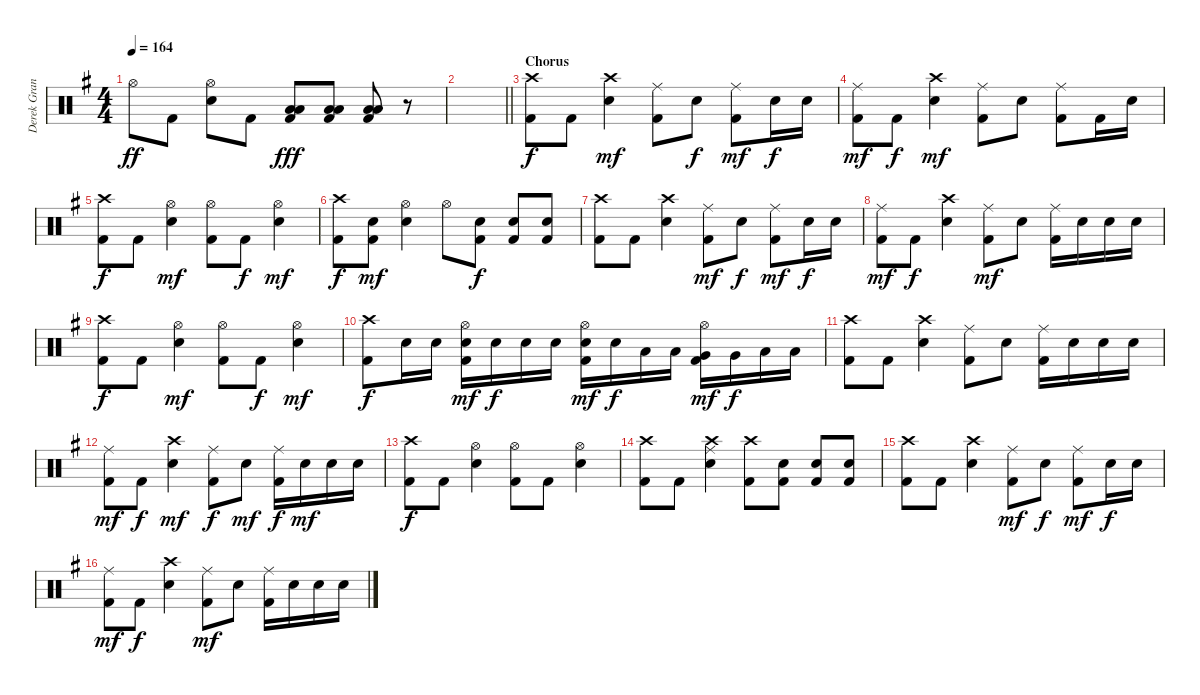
\track ("Derek Grant - Drums" "Derek Gran") {instrument percussion}
\staff {score}
\articulation defaults
\ts (4 4)
\tempo 164
\clef neutral
\ks eminor "Hi-Hat (open)".8{dy ff} "Kick (hit) 2".8
("Snare (hit) 2" "Hi-Hat (open)").8 "Kick (hit) 2".8 ("Low Tom (hit)" "Low Floor Tom (hit)" "Kick (hit) 2").8{dy fff} ("Low Tom (hit)" "Low Floor Tom (hit)" "Kick (hit) 2").8 ("Low Tom (hit)" "Low Floor Tom (hit)" "Kick (hit) 2").8 r.8 |
\barLineRight lightlight
|
\section ("" "Chorus")
("Kick (hit) 2" "Crash high (hit)").8{dy f} "Kick (hit) 2".8 ("Snare (hit) 2" "Crash high (hit)").4{dy mf} ("Kick (hit) 2" "Ride (middle)").8 "Electric Snare (hit)".8{dy f} ("Kick (hit) 2" "Ride (middle)").8{dy mf} "Electric Snare (hit)".16{dy f} "Electric Snare (hit)".16 |
("Kick (hit) 2" "Ride (middle)").8{dy mf} "Kick (hit) 2".8{dy f} ("Snare (hit) 2" "Crash high (hit)").4{dy mf} ("Kick (hit) 2" "Ride (middle)").8 "Snare (hit) 2".8 ("Kick (hit) 2" "Ride (middle)").8 "Kick (hit) 2".16 "Snare (hit) 2".16 |
("Kick (hit) 2" "Crash high (hit)").8{dy f} "Kick (hit) 2".8 ("Snare (hit) 2" "Hi-Hat (open)").4{dy mf} ("Kick (hit) 2" "Hi-Hat (open)").8 "Kick (hit) 2".8{dy f} ("Snare (hit) 2" "Hi-Hat (open)").4{dy mf} |
("Kick (hit) 2" "Crash high (hit)").8{dy f} ("Kick (hit) 2" "Snare (hit) 2").8{dy mf} ("Snare (hit) 2" "Hi-Hat (open)").4 "Hi-Hat (open)".8 ("Snare (hit) 2" "Kick (hit) 2").8{dy f} ("Snare (hit) 2" "Kick (hit) 2").8 ("Snare (hit) 2" "Kick (hit) 2").8 |
("Kick (hit) 2" "Crash high (hit)").8 "Kick (hit) 2".8 ("Snare (hit) 2" "Crash high (hit)").4 ("Kick (hit) 2" "Ride (middle)").8{dy mf} "Electric Snare (hit)".8{dy f} ("Kick (hit) 2" "Ride (middle)").8{dy mf} "Electric Snare (hit)".16{dy f} "Electric Snare (hit)".16 |
("Kick (hit) 2" "Ride (middle)").8{dy mf} "Kick (hit) 2".8{dy f} ("Snare (hit) 2" "Crash high (hit)").4 ("Kick (hit) 2" "Ride (middle)").8{dy mf} "Snare (hit) 2".8 ("Kick (hit) 2" "Ride (middle)").16 "Snare (hit) 2".16 "Snare (hit) 2".16 "Snare (hit) 2".16 |
("Kick (hit) 2" "Crash high (hit)").8{dy f} "Kick (hit) 2".8 ("Snare (hit) 2" "Hi-Hat (open)").4{dy mf} ("Kick (hit) 2" "Hi-Hat (open)").8 "Kick (hit) 2".8{dy f} ("Snare (hit) 2" "Hi-Hat (open)").4{dy mf} |
("Kick (hit) 2" "Crash high (hit)").8{dy f} "Snare (hit) 2".16 "Snare (hit) 2".16 ("Snare (hit) 2" "Kick (hit) 2" "Hi-Hat (open)").16{dy mf} "Snare (hit) 2".16{dy f} "Snare (hit) 2".16 "Snare (hit) 2".16 ("Snare (hit) 2" "Kick (hit) 2" "Hi-Hat (open)").16{dy mf} "Snare (hit) 2".16{dy f} "Low Tom (hit)".16 "Low Tom (hit)".16 ("Very Low Tom (hit)" "Kick (hit) 2" "Hi-Hat (open)").16{dy mf} "Very Low Tom (hit)".16{dy f} "Low Floor Tom (hit)".16 "Low Floor Tom (hit)".16 |
("Kick (hit) 2" "Crash high (hit)").8 "Kick (hit) 2".8 ("Snare (hit) 2" "Crash high (hit)").4 ("Kick (hit) 2" "Ride (middle)").8 "Electric Snare (hit)".8 ("Kick (hit) 2" "Ride (middle)").16 "Electric Snare (hit)".16 "Electric Snare (hit)".16 "Electric Snare (hit)".16 |
("Kick (hit) 2" "Ride (middle)").8{dy mf} "Kick (hit) 2".8{dy f} ("Snare (hit) 2" "Crash high (hit)").4{dy mf} ("Kick (hit) 2" "Ride (middle)").8{dy f} "Snare (hit) 2".8{dy mf} ("Kick (hit) 2" "Ride (middle)").16{dy f} "Snare (hit) 2".16{dy mf} "Snare (hit) 2".16 "Snare (hit) 2".16 |
("Kick (hit) 2" "Crash high (hit)").8{dy f} "Kick (hit) 2".8 ("Snare (hit) 2" "Hi-Hat (open)").4 ("Kick (hit) 2" "Hi-Hat (open)").8 "Kick (hit) 2".8 ("Snare (hit) 2" "Hi-Hat (open)").4 |
("Kick (hit) 2" "Crash high (hit)").8 "Kick (hit) 2".8 ("Snare (hit) 2" "Crash high (hit)" "Ride (middle)").4 ("Kick (hit) 2" "Crash high (hit)").8 ("Snare (hit) 2" "Kick (hit) 2").8 ("Snare (hit) 2" "Kick (hit) 2").8 ("Snare (hit) 2" "Kick (hit) 2").8 |
("Kick (hit) 2" "Crash high (hit)").8 "Kick (hit) 2".8 ("Snare (hit) 2" "Crash high (hit)").4 ("Kick (hit) 2" "Ride (middle)").8{dy mf} "Electric Snare (hit)".8{dy f} ("Kick (hit) 2" "Ride (middle)").8{dy mf} "Electric Snare (hit)".16{dy f} "Electric Snare (hit)".16 |
("Kick (hit) 2" "Ride (middle)").8{dy mf} "Kick (hit) 2".8{dy f} ("Snare (hit) 2" "Crash high (hit)").4 ("Kick (hit) 2" "Ride (middle)").8{dy mf} "Snare (hit) 2".8 ("Kick (hit) 2" "Ride (middle)").16 "Snare (hit) 2".16 "Snare (hit) 2".16 "Snare (hit) 2".16
